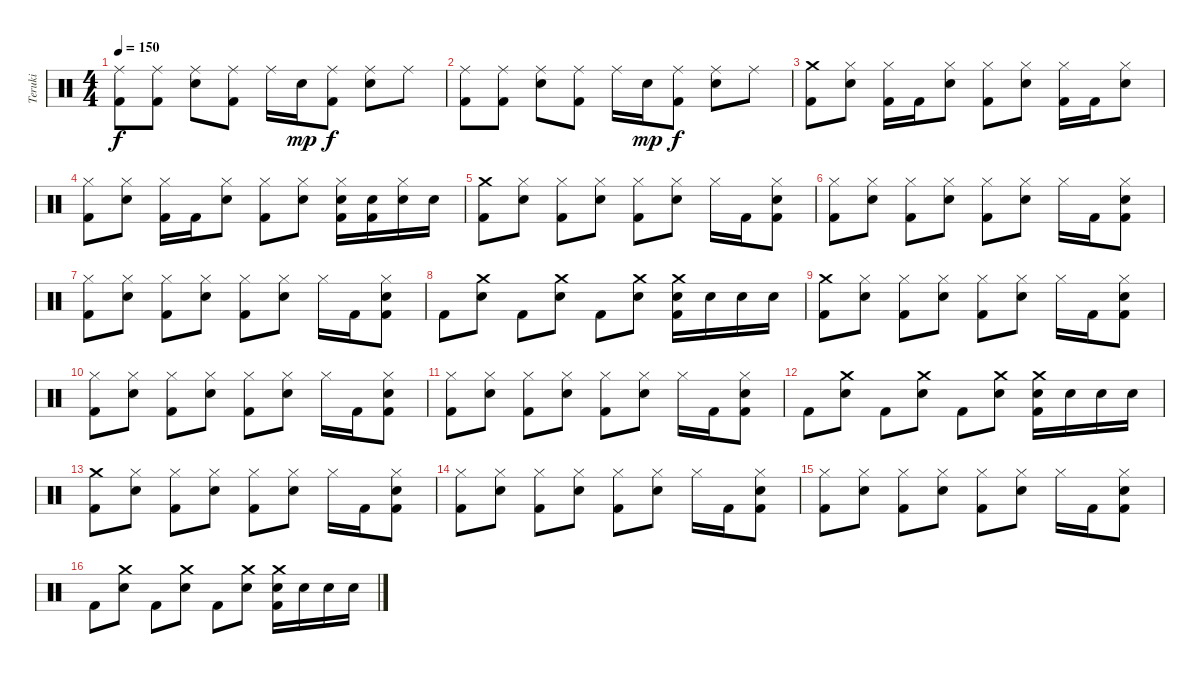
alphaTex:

\track ("Teruki" "Teruki") {instrument percussion}
\staff {score}
\articulation defaults
\ts (4 4)
\tempo 150
\clef neutral
\ks c
("Ride (middle)" "Kick (hit) 2").8{dy f} ("Ride (middle)" "Kick (hit) 2").8 ("Ride (middle)" "Electric Snare (hit)").8 ("Ride (middle)" "Kick (hit) 2").8 "Ride (middle)".16 "Electric Snare (hit)".16{dy mp} ("Ride (middle)" "Kick (hit) 2").8{dy f} ("Ride (middle)" "Electric Snare (hit)").8 "Ride (middle)".8 |
("Ride (middle)" "Kick (hit) 2").8 ("Ride (middle)" "Kick (hit) 2").8 ("Ride (middle)" "Electric Snare (hit)").8 ("Ride (middle)" "Kick (hit) 2").8 "Ride (middle)".16 "Electric Snare (hit)".16{dy mp} ("Ride (middle)" "Kick (hit) 2").8{dy f} ("Ride (middle)" "Electric Snare (hit)").8 "Ride (middle)".8 |
("Crash medium (hit)" "Kick (hit) 2").8 ("Hi-Hat (closed)" "Electric Snare (hit)").8 ("Hi-Hat (closed)" "Kick (hit) 2").16 "Kick (hit) 2".16 ("Hi-Hat (closed)" "Electric Snare (hit)").8 ("Hi-Hat (closed)" "Kick (hit) 2").8 ("Hi-Hat (closed)" "Electric Snare (hit)").8 ("Hi-Hat (closed)" "Kick (hit) 2").16 "Kick (hit) 2".16 ("Hi-Hat (closed)" "Electric Snare (hit)").8 |
("Hi-Hat (closed)" "Kick (hit) 2").8 ("Hi-Hat (closed)" "Electric Snare (hit)").8 ("Hi-Hat (closed)" "Kick (hit) 2").16 "Kick (hit) 2".16 ("Hi-Hat (closed)" "Electric Snare (hit)").8 ("Hi-Hat (closed)" "Kick (hit) 2").8 ("Hi-Hat (closed)" "Electric Snare (hit)").8 ("Hi-Hat (closed)" "Electric Snare (hit)" "Kick (hit) 2").16 ("Electric Snare (hit)" "Kick (hit) 2").16 ("Hi-Hat (closed)" "Electric Snare (hit)").16 "Electric Snare (hit)".16 |
("Crash medium (hit)" "Kick (hit) 2").8 ("Hi-Hat (closed)" "Electric Snare (hit)").8 ("Hi-Hat (closed)" "Kick (hit) 2").8 ("Hi-Hat (closed)" "Electric Snare (hit)").8 ("Hi-Hat (closed)" "Kick (hit) 2").8 ("Hi-Hat (closed)" "Electric Snare (hit)").8 "Hi-Hat (closed)".16 "Kick (hit) 2".16 ("Hi-Hat (closed)" "Electric Snare (hit)" "Kick (hit) 2").8 |
("Hi-Hat (closed)" "Kick (hit) 2").8 ("Hi-Hat (closed)" "Electric Snare (hit)").8 ("Hi-Hat (closed)" "Kick (hit) 2").8 ("Hi-Hat (closed)" "Electric Snare (hit)").8 ("Hi-Hat (closed)" "Kick (hit) 2").8 ("Hi-Hat (closed)" "Electric Snare (hit)").8 "Hi-Hat (closed)".16 "Kick (hit) 2".16 ("Hi-Hat (closed)" "Electric Snare (hit)" "Kick (hit) 2").8 |
("Hi-Hat (closed)" "Kick (hit) 2").8 ("Hi-Hat (closed)" "Electric Snare (hit)").8 ("Hi-Hat (closed)" "Kick (hit) 2").8 ("Hi-Hat (closed)" "Electric Snare (hit)").8 ("Hi-Hat (closed)" "Kick (hit) 2").8 ("Hi-Hat (closed)" "Electric Snare (hit)").8 "Hi-Hat (closed)".16 "Kick (hit) 2".16 ("Hi-Hat (closed)" "Electric Snare (hit)" "Kick (hit) 2").8 |
"Kick (hit) 2".8 ("Crash medium (hit)" "Electric Snare (hit)").8 "Kick (hit) 2".8 ("Crash medium (hit)" "Electric Snare (hit)").8 "Kick (hit) 2".8 ("Crash medium (hit)" "Electric Snare (hit)").8 ("Crash medium (hit)" "Electric Snare (hit)" "Kick (hit) 2").16 "Electric Snare (hit)".16 "Electric Snare (hit)".16 "Electric Snare (hit)".16 |
("Crash medium (hit)" "Kick (hit) 2").8 ("Hi-Hat (closed)" "Electric Snare (hit)").8 ("Hi-Hat (closed)" "Kick (hit) 2").8 ("Hi-Hat (closed)" "Electric Snare (hit)").8 ("Hi-Hat (closed)" "Kick (hit) 2").8 ("Hi-Hat (closed)" "Electric Snare (hit)").8 "Hi-Hat (closed)".16 "Kick (hit) 2".16 ("Hi-Hat (closed)" "Electric Snare (hit)" "Kick (hit) 2").8 |
("Hi-Hat (closed)" "Kick (hit) 2").8 ("Hi-Hat (closed)" "Electric Snare (hit)").8 ("Hi-Hat (closed)" "Kick (hit) 2").8 ("Hi-Hat (closed)" "Electric Snare (hit)").8 ("Hi-Hat (closed)" "Kick (hit) 2").8 ("Hi-Hat (closed)" "Electric Snare (hit)").8 "Hi-Hat (closed)".16 "Kick (hit) 2".16 ("Hi-Hat (closed)" "Electric Snare (hit)" "Kick (hit) 2").8 |
("Hi-Hat (closed)" "Kick (hit) 2").8 ("Hi-Hat (closed)" "Electric Snare (hit)").8 ("Hi-Hat (closed)" "Kick (hit) 2").8 ("Hi-Hat (closed)" "Electric Snare (hit)").8 ("Hi-Hat (closed)" "Kick (hit) 2").8 ("Hi-Hat (closed)" "Electric Snare (hit)").8 "Hi-Hat (closed)".16 "Kick (hit) 2".16 ("Hi-Hat (closed)" "Electric Snare (hit)" "Kick (hit) 2").8 |
"Kick (hit) 2".8 ("Crash medium (hit)" "Electric Snare (hit)").8 "Kick (hit) 2".8 ("Crash medium (hit)" "Electric Snare (hit)").8 "Kick (hit) 2".8 ("Crash medium (hit)" "Electric Snare (hit)").8 ("Crash medium (hit)" "Electric Snare (hit)" "Kick (hit) 2").16 "Electric Snare (hit)".16 "Electric Snare (hit)".16 "Electric Snare (hit)".16 |
("Crash medium (hit)" "Kick (hit) 2").8 ("Hi-Hat (closed)" "Electric Snare (hit)").8 ("Hi-Hat (closed)" "Kick (hit) 2").8 ("Hi-Hat (closed)" "Electric Snare (hit)").8 ("Hi-Hat (closed)" "Kick (hit) 2").8 ("Hi-Hat (closed)" "Electric Snare (hit)").8 "Hi-Hat (closed)".16 "Kick (hit) 2".16 ("Hi-Hat (closed)" "Electric Snare (hit)" "Kick (hit) 2").8 |
("Hi-Hat (closed)" "Kick (hit) 2").8 ("Hi-Hat (closed)" "Electric Snare (hit)").8 ("Hi-Hat (closed)" "Kick (hit) 2").8 ("Hi-Hat (closed)" "Electric Snare (hit)").8 ("Hi-Hat (closed)" "Kick (hit) 2").8 ("Hi-Hat (closed)" "Electric Snare (hit)").8 "Hi-Hat (closed)".16 "Kick (hit) 2".16 ("Hi-Hat (closed)" "Electric Snare (hit)" "Kick (hit) 2").8 |
("Hi-Hat (closed)" "Kick (hit) 2").8 ("Hi-Hat (closed)" "Electric Snare (hit)").8 ("Hi-Hat (closed)" "Kick (hit) 2").8 ("Hi-Hat (closed)" "Electric Snare (hit)").8 ("Hi-Hat (closed)" "Kick (hit) 2").8 ("Hi-Hat (closed)" "Electric Snare (hit)").8 "Hi-Hat (closed)".16 "Kick (hit) 2".16 ("Hi-Hat (closed)" "Electric Snare (hit)" "Kick (hit) 2").8 |
"Kick (hit) 2".8 ("Crash medium (hit)" "Electric Snare (hit)").8 "Kick (hit) 2".8 ("Crash medium (hit)" "Electric Snare (hit)").8 "Kick (hit) 2".8 ("Crash medium (hit)" "Electric Snare (hit)").8 ("Crash medium (hit)" "Electric Snare (hit)" "Kick (hit) 2").16 "Electric Snare (hit)".16 "Electric Snare (hit)".16 "Electric Snare (hit)".16
